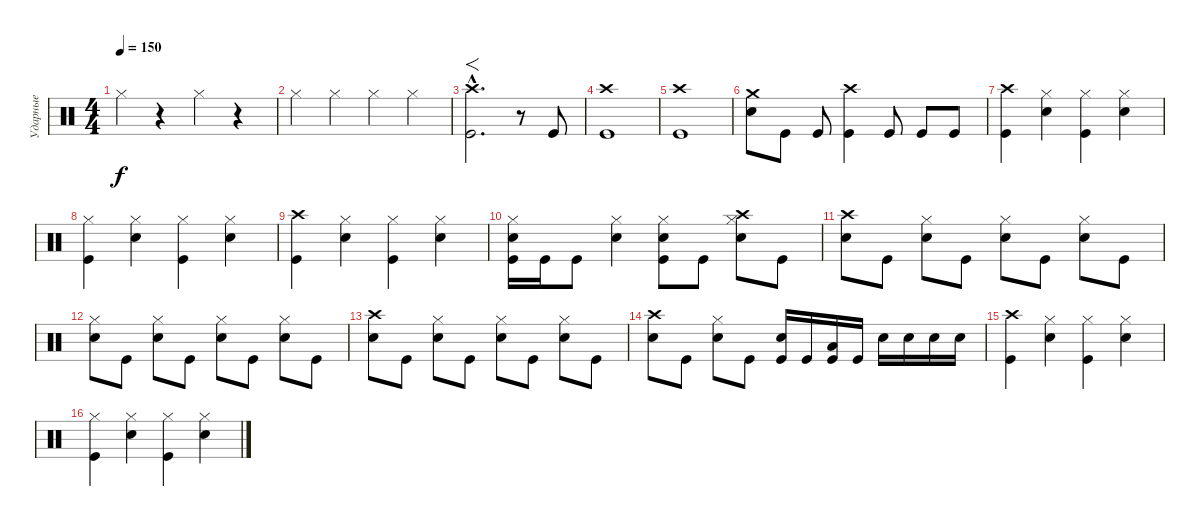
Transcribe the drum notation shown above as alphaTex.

\track ("Ударные" "Ударные") {instrument percussion}
\staff {score}
\articulation defaults
\ts (4 4)
\tempo 150
\clef neutral
\ks c "Hi-Hat (closed)".4{dy f}
r.4 "Hi-Hat (closed)".4 r.4 |
"Hi-Hat (closed)".4 "Hi-Hat (closed)".4 "Hi-Hat (closed)".4 "Hi-Hat (closed)".4 |
("Crash high (hit)"{hac} "Kick (hit)"{hac}).2{f d} r.8 "Kick (hit)".8 |
("Crash high (hit)" "Kick (hit)").1 |
("Crash high (hit)" "Kick (hit)").1 |
("Crash medium (hit)" "Electric Snare (hit)").8 "Kick (hit)".8 "Kick (hit)".8 ("Crash high (hit)" "Kick (hit)").4 "Kick (hit)".8 "Kick (hit)".8 "Kick (hit)".8 |
("Crash high (hit)" "Kick (hit)").4 ("Hi-Hat (closed)" "Electric Snare (hit)").4 ("Hi-Hat (closed)" "Kick (hit)").4 ("Hi-Hat (closed)" "Electric Snare (hit)").4 |
("Hi-Hat (closed)" "Kick (hit)").4 ("Hi-Hat (closed)" "Electric Snare (hit)").4 ("Hi-Hat (closed)" "Kick (hit)").4 ("Hi-Hat (closed)" "Electric Snare (hit)").4 |
("Crash high (hit)" "Kick (hit)").4 ("Hi-Hat (closed)" "Electric Snare (hit)").4 ("Hi-Hat (closed)" "Kick (hit)").4 ("Hi-Hat (closed)" "Electric Snare (hit)").4 |
("Hi-Hat (closed)" "Electric Snare (hit)" "Kick (hit)").16 "Kick (hit)".16 "Kick (hit)".8 ("Hi-Hat (closed)" "Electric Snare (hit)").4 ("Hi-Hat (closed)" "Electric Snare (hit)" "Kick (hit)").8 "Kick (hit)".8 ("Crash high (hit)" "Hi-Hat (closed)" "Electric Snare (hit)").8 "Kick (hit)".8 |
("Crash high (hit)" "Electric Snare (hit)").8 "Kick (hit)".8 ("Hi-Hat (closed)" "Electric Snare (hit)").8 "Kick (hit)".8 ("Hi-Hat (closed)" "Electric Snare (hit)").8 "Kick (hit)".8 ("Hi-Hat (closed)" "Electric Snare (hit)").8 "Kick (hit)".8 |
("Hi-Hat (closed)" "Electric Snare (hit)").8 "Kick (hit)".8 ("Hi-Hat (closed)" "Electric Snare (hit)").8 "Kick (hit)".8 ("Hi-Hat (closed)" "Electric Snare (hit)").8 "Kick (hit)".8 ("Hi-Hat (closed)" "Electric Snare (hit)").8 "Kick (hit)".8 |
("Crash high (hit)" "Electric Snare (hit)").8 "Kick (hit)".8 ("Hi-Hat (closed)" "Electric Snare (hit)").8 "Kick (hit)".8 ("Hi-Hat (closed)" "Electric Snare (hit)").8 "Kick (hit)".8 ("Hi-Hat (closed)" "Electric Snare (hit)").8 "Kick (hit)".8 |
("Crash high (hit)" "Electric Snare (hit)").8 "Kick (hit)".8 ("Hi-Hat (closed)" "Electric Snare (hit)").8 "Kick (hit)".8 ("Electric Snare (hit)" "Kick (hit)").16 "Kick (hit)".16 ("Low Tom (hit)" "Kick (hit)").16 "Kick (hit)".16 "Electric Snare (hit)".16 "Electric Snare (hit)".16 "Electric Snare (hit)".16 "Electric Snare (hit)".16 |
("Crash high (hit)" "Kick (hit)").4 ("Hi-Hat (closed)" "Electric Snare (hit)").4 ("Hi-Hat (closed)" "Kick (hit)").4 ("Hi-Hat (closed)" "Electric Snare (hit)").4 |
("Hi-Hat (closed)" "Kick (hit)").4 ("Hi-Hat (closed)" "Electric Snare (hit)").4 ("Hi-Hat (closed)" "Kick (hit)").4 ("Hi-Hat (closed)" "Electric Snare (hit)").4
